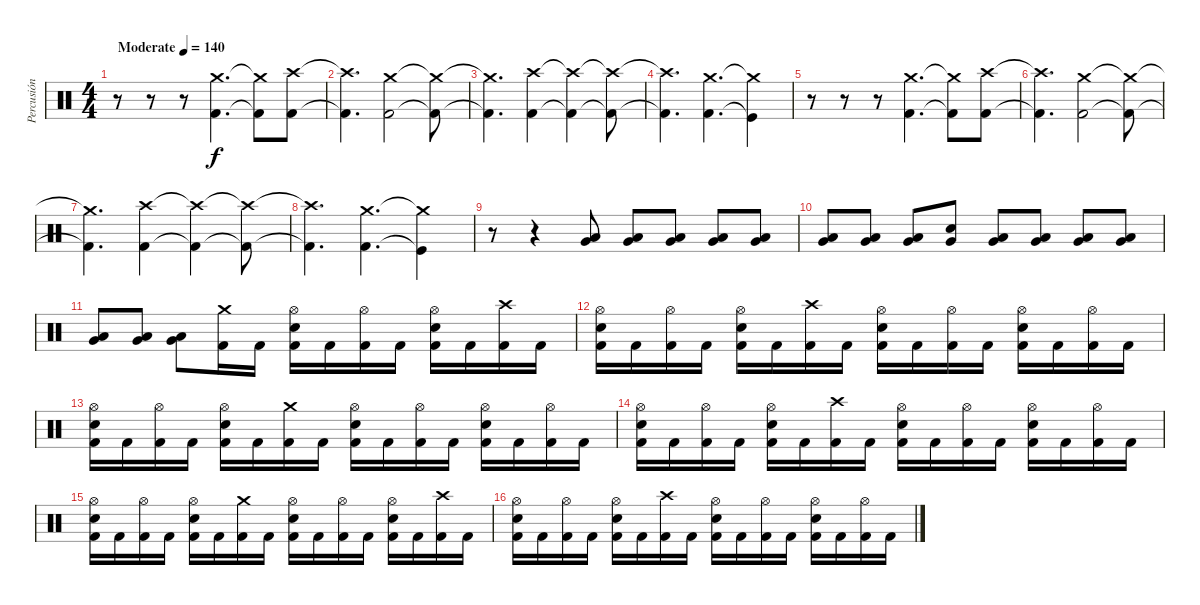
\track ("Percusión" "Percusión") {instrument percussion}
\staff {score}
\articulation defaults
\ts (4 4)
\tempo (140 "Moderate")
\clef neutral
\ks c
r.8{dy f} r.8 r.8 ("Crash medium (hit)" "Kick (hit) 2").4{d} ("Crash medium (hit)"{t} "Kick (hit) 2"{t}).8 ("Crash high (hit)" "Kick (hit) 2").8 |
("Crash high (hit)"{t} "Kick (hit) 2"{t}).4{d} ("Crash medium (hit)" "Kick (hit) 2").2 ("Crash medium (hit)"{t} "Kick (hit) 2"{t}).8 |
("Crash medium (hit)"{t} "Kick (hit) 2"{t}).4{d} ("Crash high (hit)" "Kick (hit) 2").4 ("Crash high (hit)"{t} "Kick (hit) 2"{t}).4 ("Crash high (hit)"{t} "Kick (hit) 2"{t}).8 |
("Crash high (hit)"{t} "Kick (hit) 2"{t}).4{d} ("Crash medium (hit)" "Kick (hit) 2").4{d} ("Crash medium (hit)"{t} "Kick (hit)"{t}).4 |
r.8 r.8 r.8 ("Crash medium (hit)" "Kick (hit) 2").4{d} ("Crash medium (hit)"{t} "Kick (hit) 2"{t}).8 ("Crash high (hit)" "Kick (hit) 2").8 |
("Crash high (hit)"{t} "Kick (hit) 2"{t}).4{d} ("Crash medium (hit)" "Kick (hit) 2").2 ("Crash medium (hit)"{t} "Kick (hit) 2"{t}).8 |
("Crash medium (hit)"{t} "Kick (hit) 2"{t}).4{d} ("Crash high (hit)" "Kick (hit) 2").4 ("Crash high (hit)"{t} "Kick (hit) 2"{t}).4 ("Crash high (hit)"{t} "Kick (hit) 2"{t}).8 |
("Crash high (hit)"{t} "Kick (hit) 2"{t}).4{d} ("Crash medium (hit)" "Kick (hit) 2").4{d} ("Crash medium (hit)"{t} "Kick (hit)"{t}).4 |
r.8 r.4 ("Low Tom (hit)" "Very Low Tom (hit)").8 ("Low Tom (hit)" "Very Low Tom (hit)").8 ("Low Tom (hit)" "Very Low Tom (hit)").8 ("Low Tom (hit)" "Very Low Tom (hit)").8 ("Low Tom (hit)" "Very Low Tom (hit)").8 |
("Low Tom (hit)" "Very Low Tom (hit)").8 ("Low Tom (hit)" "Very Low Tom (hit)").8 ("Low Tom (hit)" "Very Low Tom (hit)").8 ("Snare (hit)" "Very Low Tom (hit)").8 ("Low Tom (hit)" "Very Low Tom (hit)").8 ("Low Tom (hit)" "Very Low Tom (hit)").8 ("Low Tom (hit)" "Very Low Tom (hit)").8 ("Low Tom (hit)" "Very Low Tom (hit)").8 |
("Low Tom (hit)" "Very Low Tom (hit)").8 ("Low Tom (hit)" "Very Low Tom (hit)").8 ("Low Tom (hit)" "Very Low Tom (hit)").8 ("Crash medium (hit)" "Kick (hit) 2").16 "Kick (hit) 2".16 ("Hi-Hat (open)" "Electric Snare (hit)" "Kick (hit) 2").16 "Kick (hit) 2".16 ("Hi-Hat (open)" "Kick (hit) 2").16 "Kick (hit) 2".16 ("Hi-Hat (open)" "Electric Snare (hit)" "Kick (hit) 2").16 "Kick (hit) 2".16 ("Crash high (hit)" "Kick (hit) 2").16 "Kick (hit) 2".16 |
("Hi-Hat (open)" "Electric Snare (hit)" "Kick (hit) 2").16 "Kick (hit) 2".16 ("Hi-Hat (open)" "Kick (hit) 2").16 "Kick (hit) 2".16 ("Hi-Hat (open)" "Electric Snare (hit)" "Kick (hit) 2").16 "Kick (hit) 2".16 ("Crash high (hit)" "Kick (hit) 2").16 "Kick (hit) 2".16 ("Hi-Hat (open)" "Electric Snare (hit)" "Kick (hit) 2").16 "Kick (hit) 2".16 ("Hi-Hat (open)" "Kick (hit) 2").16 "Kick (hit) 2".16 ("Hi-Hat (open)" "Electric Snare (hit)" "Kick (hit) 2").16 "Kick (hit) 2".16 ("Hi-Hat (open)" "Kick (hit) 2").16 "Kick (hit) 2".16 |
("Hi-Hat (open)" "Electric Snare (hit)" "Kick (hit) 2").16 "Kick (hit) 2".16 ("Hi-Hat (open)" "Kick (hit) 2").16 "Kick (hit) 2".16 ("Hi-Hat (open)" "Electric Snare (hit)" "Kick (hit) 2").16 "Kick (hit) 2".16 ("Crash medium (hit)" "Kick (hit) 2").16 "Kick (hit) 2".16 ("Hi-Hat (open)" "Electric Snare (hit)" "Kick (hit) 2").16 "Kick (hit) 2".16 ("Hi-Hat (open)" "Kick (hit) 2").16 "Kick (hit) 2".16 ("Hi-Hat (open)" "Electric Snare (hit)" "Kick (hit) 2").16 "Kick (hit) 2".16 ("Hi-Hat (open)" "Kick (hit) 2").16 "Kick (hit) 2".16 |
("Hi-Hat (open)" "Electric Snare (hit)" "Kick (hit) 2").16 "Kick (hit) 2".16 ("Hi-Hat (open)" "Kick (hit) 2").16 "Kick (hit) 2".16 ("Hi-Hat (open)" "Electric Snare (hit)" "Kick (hit) 2").16 "Kick (hit) 2".16 ("Crash high (hit)" "Kick (hit) 2").16 "Kick (hit) 2".16 ("Hi-Hat (open)" "Electric Snare (hit)" "Kick (hit) 2").16 "Kick (hit) 2".16 ("Hi-Hat (open)" "Kick (hit) 2").16 "Kick (hit) 2".16 ("Hi-Hat (open)" "Electric Snare (hit)" "Kick (hit) 2").16 "Kick (hit) 2".16 ("Hi-Hat (open)" "Kick (hit) 2").16 "Kick (hit) 2".16 |
("Hi-Hat (open)" "Electric Snare (hit)" "Kick (hit) 2").16 "Kick (hit) 2".16 ("Hi-Hat (open)" "Kick (hit) 2").16 "Kick (hit) 2".16 ("Hi-Hat (open)" "Electric Snare (hit)" "Kick (hit) 2").16 "Kick (hit) 2".16 ("Crash medium (hit)" "Kick (hit) 2").16 "Kick (hit) 2".16 ("Hi-Hat (open)" "Electric Snare (hit)" "Kick (hit) 2").16 "Kick (hit) 2".16 ("Hi-Hat (open)" "Kick (hit) 2").16 "Kick (hit) 2".16 ("Hi-Hat (open)" "Electric Snare (hit)" "Kick (hit) 2").16 "Kick (hit) 2".16 ("Crash high (hit)" "Kick (hit) 2").16 "Kick (hit) 2".16 |
("Hi-Hat (open)" "Electric Snare (hit)" "Kick (hit) 2").16 "Kick (hit) 2".16 ("Hi-Hat (open)" "Kick (hit) 2").16 "Kick (hit) 2".16 ("Hi-Hat (open)" "Electric Snare (hit)" "Kick (hit) 2").16 "Kick (hit) 2".16 ("Crash high (hit)" "Kick (hit) 2").16 "Kick (hit) 2".16 ("Hi-Hat (open)" "Electric Snare (hit)" "Kick (hit) 2").16 "Kick (hit) 2".16 ("Hi-Hat (open)" "Kick (hit) 2").16 "Kick (hit) 2".16 ("Hi-Hat (open)" "Electric Snare (hit)" "Kick (hit) 2").16 "Kick (hit) 2".16 ("Hi-Hat (open)" "Kick (hit) 2").16 "Kick (hit) 2".16
